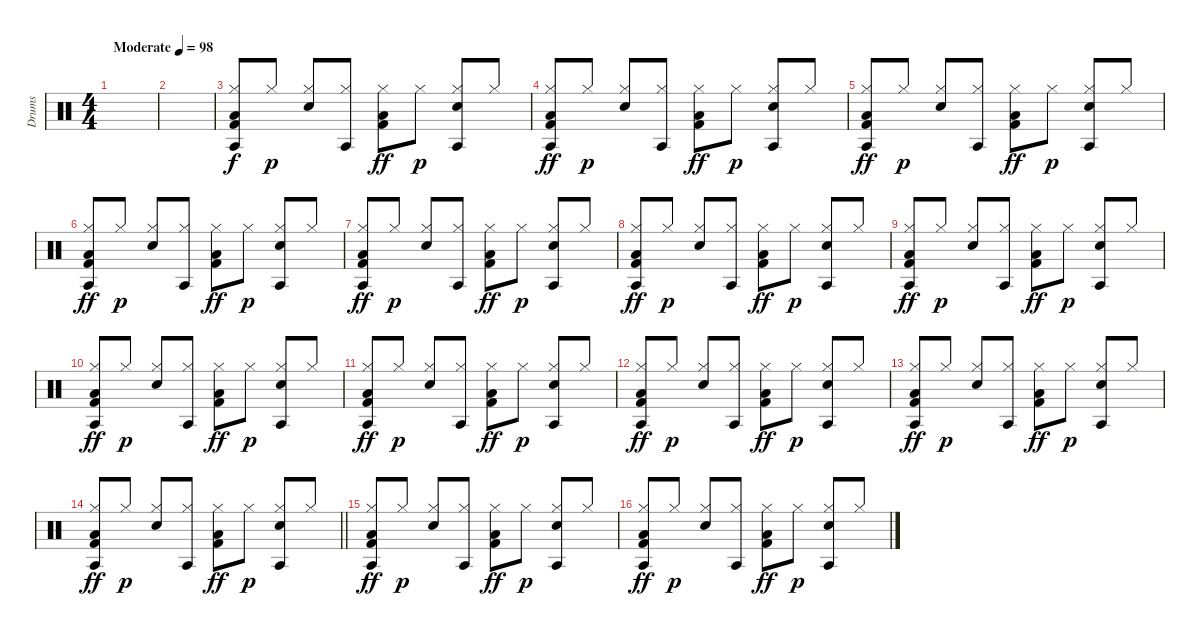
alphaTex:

\track ("Drums" "Drums") {instrument percussion}
\staff {score}
\articulation defaults
\ts (4 4)
\tempo (98 "Moderate")
\clef neutral
\ks c
|
|
("Agogo tow (hit)" "Hi-Hat (closed)" "Low Floor Tom (hit)" "Kick (hit) 2").8 "Hi-Hat (closed)".8{dy p} ("Hi-Hat (closed)" "Snare (hit) 2").8 ("Agogo tow (hit)" "Hi-Hat (closed)").8 ("Hi-Hat (closed)" "Low Floor Tom (hit)" "Kick (hit) 2").8{dy ff} "Hi-Hat (closed)".8{dy p} ("Agogo tow (hit)" "Hi-Hat (closed)" "Snare (hit) 2").8 "Hi-Hat (closed)".8 |
("Agogo tow (hit)" "Hi-Hat (closed)" "Low Floor Tom (hit)" "Kick (hit) 2").8{dy ff} "Hi-Hat (closed)".8{dy p} ("Hi-Hat (closed)" "Snare (hit) 2").8 ("Agogo tow (hit)" "Hi-Hat (closed)").8 ("Hi-Hat (closed)" "Low Floor Tom (hit)" "Kick (hit) 2").8{dy ff} "Hi-Hat (closed)".8{dy p} ("Agogo tow (hit)" "Hi-Hat (closed)" "Snare (hit) 2").8 "Hi-Hat (closed)".8 |
("Agogo tow (hit)" "Hi-Hat (closed)" "Low Floor Tom (hit)" "Kick (hit) 2").8{dy ff} "Hi-Hat (closed)".8{dy p} ("Hi-Hat (closed)" "Snare (hit) 2").8 ("Agogo tow (hit)" "Hi-Hat (closed)").8 ("Hi-Hat (closed)" "Low Floor Tom (hit)" "Kick (hit) 2").8{dy ff} "Hi-Hat (closed)".8{dy p} ("Agogo tow (hit)" "Hi-Hat (closed)" "Snare (hit) 2").8 "Hi-Hat (closed)".8 |
("Agogo tow (hit)" "Hi-Hat (closed)" "Low Floor Tom (hit)" "Kick (hit) 2").8{dy ff} "Hi-Hat (closed)".8{dy p} ("Hi-Hat (closed)" "Snare (hit) 2").8 ("Agogo tow (hit)" "Hi-Hat (closed)").8 ("Hi-Hat (closed)" "Low Floor Tom (hit)" "Kick (hit) 2").8{dy ff} "Hi-Hat (closed)".8{dy p} ("Agogo tow (hit)" "Hi-Hat (closed)" "Snare (hit) 2").8 "Hi-Hat (closed)".8 |
("Agogo tow (hit)" "Hi-Hat (closed)" "Low Floor Tom (hit)" "Kick (hit) 2").8{dy ff} "Hi-Hat (closed)".8{dy p} ("Hi-Hat (closed)" "Snare (hit) 2").8 ("Agogo tow (hit)" "Hi-Hat (closed)").8 ("Hi-Hat (closed)" "Low Floor Tom (hit)" "Kick (hit) 2").8{dy ff} "Hi-Hat (closed)".8{dy p} ("Agogo tow (hit)" "Hi-Hat (closed)" "Snare (hit) 2").8 "Hi-Hat (closed)".8 |
("Agogo tow (hit)" "Hi-Hat (closed)" "Low Floor Tom (hit)" "Kick (hit) 2").8{dy ff} "Hi-Hat (closed)".8{dy p} ("Hi-Hat (closed)" "Snare (hit) 2").8 ("Agogo tow (hit)" "Hi-Hat (closed)").8 ("Hi-Hat (closed)" "Low Floor Tom (hit)" "Kick (hit) 2").8{dy ff} "Hi-Hat (closed)".8{dy p} ("Agogo tow (hit)" "Hi-Hat (closed)" "Snare (hit) 2").8 "Hi-Hat (closed)".8 |
("Agogo tow (hit)" "Hi-Hat (closed)" "Low Floor Tom (hit)" "Kick (hit) 2").8{dy ff} "Hi-Hat (closed)".8{dy p} ("Hi-Hat (closed)" "Snare (hit) 2").8 ("Agogo tow (hit)" "Hi-Hat (closed)").8 ("Hi-Hat (closed)" "Low Floor Tom (hit)" "Kick (hit) 2").8{dy ff} "Hi-Hat (closed)".8{dy p} ("Agogo tow (hit)" "Hi-Hat (closed)" "Snare (hit) 2").8 "Hi-Hat (closed)".8 |
("Agogo tow (hit)" "Hi-Hat (closed)" "Low Floor Tom (hit)" "Kick (hit) 2").8{dy ff} "Hi-Hat (closed)".8{dy p} ("Hi-Hat (closed)" "Snare (hit) 2").8 ("Agogo tow (hit)" "Hi-Hat (closed)").8 ("Hi-Hat (closed)" "Low Floor Tom (hit)" "Kick (hit) 2").8{dy ff} "Hi-Hat (closed)".8{dy p} ("Agogo tow (hit)" "Hi-Hat (closed)" "Snare (hit) 2").8 "Hi-Hat (closed)".8 |
("Agogo tow (hit)" "Hi-Hat (closed)" "Low Floor Tom (hit)" "Kick (hit) 2").8{dy ff} "Hi-Hat (closed)".8{dy p} ("Hi-Hat (closed)" "Snare (hit) 2").8 ("Agogo tow (hit)" "Hi-Hat (closed)").8 ("Hi-Hat (closed)" "Low Floor Tom (hit)" "Kick (hit) 2").8{dy ff} "Hi-Hat (closed)".8{dy p} ("Agogo tow (hit)" "Hi-Hat (closed)" "Snare (hit) 2").8 "Hi-Hat (closed)".8 |
("Agogo tow (hit)" "Hi-Hat (closed)" "Low Floor Tom (hit)" "Kick (hit) 2").8{dy ff} "Hi-Hat (closed)".8{dy p} ("Hi-Hat (closed)" "Snare (hit) 2").8 ("Agogo tow (hit)" "Hi-Hat (closed)").8 ("Hi-Hat (closed)" "Low Floor Tom (hit)" "Kick (hit) 2").8{dy ff} "Hi-Hat (closed)".8{dy p} ("Agogo tow (hit)" "Hi-Hat (closed)" "Snare (hit) 2").8 "Hi-Hat (closed)".8 |
("Agogo tow (hit)" "Hi-Hat (closed)" "Low Floor Tom (hit)" "Kick (hit) 2").8{dy ff} "Hi-Hat (closed)".8{dy p} ("Hi-Hat (closed)" "Snare (hit) 2").8 ("Agogo tow (hit)" "Hi-Hat (closed)").8 ("Hi-Hat (closed)" "Low Floor Tom (hit)" "Kick (hit) 2").8{dy ff} "Hi-Hat (closed)".8{dy p} ("Agogo tow (hit)" "Hi-Hat (closed)" "Snare (hit) 2").8 "Hi-Hat (closed)".8 |
\barLineRight lightlight
("Agogo tow (hit)" "Hi-Hat (closed)" "Low Floor Tom (hit)" "Kick (hit) 2").8{dy ff} "Hi-Hat (closed)".8{dy p} ("Hi-Hat (closed)" "Snare (hit) 2").8 ("Agogo tow (hit)" "Hi-Hat (closed)").8 ("Hi-Hat (closed)" "Low Floor Tom (hit)" "Kick (hit) 2").8{dy ff} "Hi-Hat (closed)".8{dy p} ("Agogo tow (hit)" "Hi-Hat (closed)" "Snare (hit) 2").8 "Hi-Hat (closed)".8 |
\section ("" "")
("Agogo tow (hit)" "Hi-Hat (closed)" "Low Floor Tom (hit)" "Kick (hit) 2").8{dy ff} "Hi-Hat (closed)".8{dy p} ("Hi-Hat (closed)" "Snare (hit) 2").8 ("Agogo tow (hit)" "Hi-Hat (closed)").8 ("Hi-Hat (closed)" "Low Floor Tom (hit)" "Kick (hit) 2").8{dy ff} "Hi-Hat (closed)".8{dy p} ("Agogo tow (hit)" "Hi-Hat (closed)" "Snare (hit) 2").8 "Hi-Hat (closed)".8 |
("Agogo tow (hit)" "Hi-Hat (closed)" "Low Floor Tom (hit)" "Kick (hit) 2").8{dy ff} "Hi-Hat (closed)".8{dy p} ("Hi-Hat (closed)" "Snare (hit) 2").8 ("Agogo tow (hit)" "Hi-Hat (closed)").8 ("Hi-Hat (closed)" "Low Floor Tom (hit)" "Kick (hit) 2").8{dy ff} "Hi-Hat (closed)".8{dy p} ("Agogo tow (hit)" "Hi-Hat (closed)" "Snare (hit) 2").8 "Hi-Hat (closed)".8
